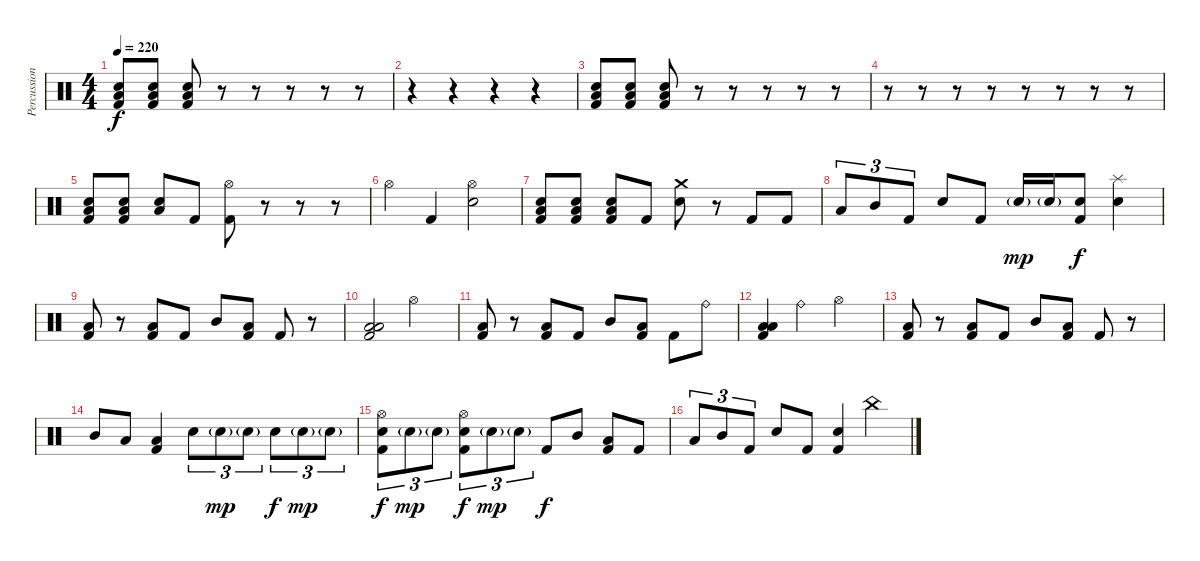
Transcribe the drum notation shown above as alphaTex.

\track ("Percussion" "Percussion") {instrument percussion}
\staff {score}
\articulation defaults
\ts (4 4)
\tempo 220
\clef neutral
\ks c
("Low Floor Tom (hit)" "Electric Snare (hit)" "Kick (hit) 2").8{dy f} ("Low Floor Tom (hit)" "Electric Snare (hit)" "Kick (hit) 2").8 ("Low Floor Tom (hit)" "Electric Snare (hit)" "Kick (hit) 2").8 r.8 r.8 r.8 r.8 r.8 |
r.4 r.4 r.4 r.4 |
("Low Floor Tom (hit)" "Electric Snare (hit)" "Kick (hit) 2").8 ("Low Floor Tom (hit)" "Electric Snare (hit)" "Kick (hit) 2").8 ("Low Floor Tom (hit)" "Electric Snare (hit)" "Kick (hit) 2").8 r.8 r.8 r.8 r.8 r.8 |
r.8 r.8 r.8 r.8 r.8 r.8 r.8 r.8 |
("Low Floor Tom (hit)" "Electric Snare (hit)" "Kick (hit) 2").8 ("Low Floor Tom (hit)" "Electric Snare (hit)" "Kick (hit) 2").8 ("Low Floor Tom (hit)" "Electric Snare (hit)").8 "Kick (hit) 2".8 ("Hi-Hat (open)" "Kick (hit) 2").8 r.8 r.8 r.8 |
"Hi-Hat (open)".4 "Kick (hit) 2".4 ("Hi-Hat (open)" "Electric Snare (hit)").2 |
("Low Floor Tom (hit)" "Electric Snare (hit)" "Kick (hit) 2").8 ("Low Floor Tom (hit)" "Electric Snare (hit)" "Kick (hit) 2").8 ("Low Floor Tom (hit)" "Electric Snare (hit)" "Kick (hit) 2").8 "Kick (hit) 2".8 ("Crash medium (hit)" "Electric Snare (hit)").8 r.8 "Kick (hit) 2".8 "Kick (hit) 2".8 |
"Low Tom (hit)".8{tu (3 2)} "Mid Tom (hit)".8{tu (3 2)} "Kick (hit) 2".8{tu (3 2)} "Electric Snare (hit)".8 "Kick (hit) 2".8 "Electric Snare (hit)"{g}.16{dy mp} "Electric Snare (hit)"{g}.16 ("Electric Snare (hit)" "Kick (hit) 2").8{dy f} ("Splash (hit)" "Electric Snare (hit)").4 |
("Low Floor Tom (hit)" "Kick (hit) 2").8 r.8 ("Low Floor Tom (hit)" "Kick (hit) 2").8 "Kick (hit) 2".8 "Mid Tom (hit)".8 ("Low Tom (hit)" "Kick (hit) 2").8 "Kick (hit) 2".8 r.8 |
("Low Floor Tom (hit)" "Low Floor Tom (hit)" "Kick (hit) 2").2 "Hi-Hat (open)".2 |
("Low Floor Tom (hit)" "Kick (hit) 2").8 r.8 ("Low Floor Tom (hit)" "Kick (hit) 2").8 "Kick (hit) 2".8 "Mid Tom (hit)".8 ("Low Tom (hit)" "Kick (hit) 2").8 "Kick (hit) 2".8 "Ride (bell)".8 |
("Low Floor Tom (hit)" "Low Floor Tom (hit)" "Kick (hit) 2").4 "Ride (bell)".4 "Hi-Hat (open)".2 |
("Low Floor Tom (hit)" "Kick (hit) 2").8 r.8 ("Low Floor Tom (hit)" "Kick (hit) 2").8 "Kick (hit) 2".8 "Mid Tom (hit)".8 ("Low Tom (hit)" "Kick (hit) 2").8 "Kick (hit) 2".8 r.8 |
"Mid Tom (hit)".8 "Low Tom (hit)".8 ("Low Floor Tom (hit)" "Kick (hit) 2").4 "Electric Snare (hit)".8{tu (3 2)} "Electric Snare (hit)"{g}.8{tu (3 2) dy mp} "Electric Snare (hit)"{g}.8{tu (3 2)} "Electric Snare (hit)".8{tu (3 2) dy f} "Electric Snare (hit)"{g}.8{tu (3 2) dy mp} "Electric Snare (hit)"{g}.8{tu (3 2)} |
("Hi-Hat (open)" "Electric Snare (hit)" "Kick (hit) 2").8{tu (3 2) dy f} "Electric Snare (hit)"{g}.8{tu (3 2) dy mp} "Electric Snare (hit)"{g}.8{tu (3 2)} ("Hi-Hat (open)" "Electric Snare (hit)" "Kick (hit) 2").8{tu (3 2) dy f} "Electric Snare (hit)"{g}.8{tu (3 2) dy mp} "Electric Snare (hit)"{g}.8{tu (3 2)} "Kick (hit) 2".8{dy f} "Mid Tom (hit)".8 ("Low Tom (hit)" "Kick (hit) 2").8 "Kick (hit) 2".8 |
"Low Tom (hit)".8{tu (3 2)} "Mid Tom (hit)".8{tu (3 2)} "Kick (hit) 2".8{tu (3 2)} "Electric Snare (hit)".8 "Kick (hit) 2".8 ("Electric Snare (hit)" "Kick (hit) 2").4 "China (hit)".4
